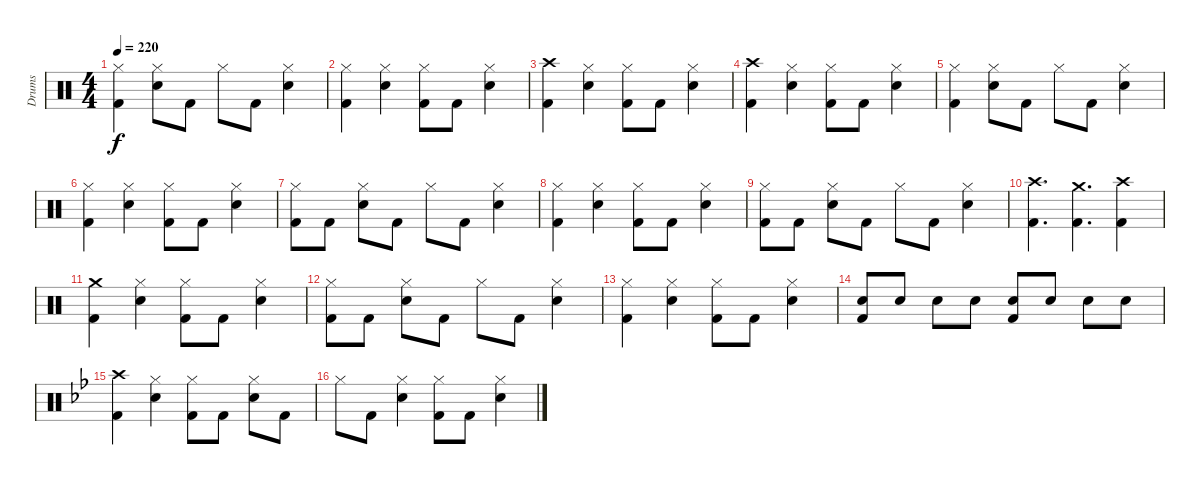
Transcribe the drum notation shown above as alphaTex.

\track ("Drums" "Drums") {instrument percussion}
\staff {score}
\articulation defaults
\ts (4 4)
\tempo 220
\clef neutral
\ks aminor
("Kick (hit) 2" "Hi-Hat (closed)").4{dy f} ("Snare (hit) 2" "Hi-Hat (closed)").8 "Kick (hit) 2".8 "Hi-Hat (closed)".8 "Kick (hit) 2".8 ("Snare (hit) 2" "Hi-Hat (closed)").4 |
("Kick (hit) 2" "Hi-Hat (closed)").4 ("Snare (hit) 2" "Hi-Hat (closed)").4 ("Kick (hit) 2" "Hi-Hat (closed)").8 "Kick (hit) 2".8 ("Snare (hit) 2" "Hi-Hat (closed)").4 |
("Kick (hit) 2" "Crash high (hit)").4 ("Snare (hit) 2" "Hi-Hat (closed)").4 ("Kick (hit) 2" "Hi-Hat (closed)").8 "Kick (hit) 2".8 ("Snare (hit) 2" "Hi-Hat (closed)").4 |
("Kick (hit) 2" "Crash high (hit)").4 ("Snare (hit) 2" "Hi-Hat (closed)").4 ("Kick (hit) 2" "Hi-Hat (closed)").8 "Kick (hit) 2".8 ("Snare (hit) 2" "Hi-Hat (closed)").4 |
("Kick (hit) 2" "Hi-Hat (closed)").4 ("Snare (hit) 2" "Hi-Hat (closed)").8 "Kick (hit) 2".8 "Hi-Hat (closed)".8 "Kick (hit) 2".8 ("Snare (hit) 2" "Hi-Hat (closed)").4 |
("Kick (hit) 2" "Hi-Hat (closed)").4 ("Snare (hit) 2" "Hi-Hat (closed)").4 ("Kick (hit) 2" "Hi-Hat (closed)").8 "Kick (hit) 2".8 ("Snare (hit) 2" "Hi-Hat (closed)").4 |
("Kick (hit) 2" "Hi-Hat (closed)").8 "Kick (hit) 2".8 ("Snare (hit) 2" "Hi-Hat (closed)").8 "Kick (hit) 2".8 "Hi-Hat (closed)".8 "Kick (hit) 2".8 ("Snare (hit) 2" "Hi-Hat (closed)").4 |
("Kick (hit) 2" "Hi-Hat (closed)").4 ("Snare (hit) 2" "Hi-Hat (closed)").4 ("Kick (hit) 2" "Hi-Hat (closed)").8 "Kick (hit) 2".8 ("Snare (hit) 2" "Hi-Hat (closed)").4 |
("Kick (hit) 2" "Hi-Hat (closed)").8 "Kick (hit) 2".8 ("Snare (hit) 2" "Hi-Hat (closed)").8 "Kick (hit) 2".8 "Hi-Hat (closed)".8 "Kick (hit) 2".8 ("Snare (hit) 2" "Hi-Hat (closed)").4 |
("Kick (hit) 2" "Crash high (hit)").4{d} ("Kick (hit) 2" "Crash medium (hit)").4{d} ("Kick (hit) 2" "Crash high (hit)").4 |
("Kick (hit) 2" "Crash medium (hit)").4 ("Snare (hit) 2" "Hi-Hat (closed)").4 ("Kick (hit) 2" "Hi-Hat (closed)").8 "Kick (hit) 2".8 ("Snare (hit) 2" "Hi-Hat (closed)").4 |
("Kick (hit) 2" "Hi-Hat (closed)").8 "Kick (hit) 2".8 ("Snare (hit) 2" "Hi-Hat (closed)").8 "Kick (hit) 2".8 "Hi-Hat (closed)".8 "Kick (hit) 2".8 ("Snare (hit) 2" "Hi-Hat (closed)").4 |
("Kick (hit) 2" "Hi-Hat (closed)").4 ("Snare (hit) 2" "Hi-Hat (closed)").4 ("Kick (hit) 2" "Hi-Hat (closed)").8 "Kick (hit) 2".8 ("Snare (hit) 2" "Hi-Hat (closed)").4 |
("Kick (hit) 2" "Snare (hit) 2").8 "Snare (hit) 2".8 "Snare (hit) 2".8 "Snare (hit) 2".8 ("Kick (hit) 2" "Snare (hit) 2").8 "Snare (hit) 2".8 "Snare (hit) 2".8 "Snare (hit) 2".8 |
\ks gminor
("Kick (hit) 2" "Crash high (hit)").4 ("Snare (hit) 2" "Hi-Hat (closed)").4 ("Kick (hit) 2" "Hi-Hat (closed)").8 "Kick (hit) 2".8 ("Snare (hit) 2" "Hi-Hat (closed)").8 "Kick (hit) 2".8 |
"Hi-Hat (closed)".8 "Kick (hit) 2".8 ("Snare (hit) 2" "Hi-Hat (closed)").4 ("Kick (hit) 2" "Hi-Hat (closed)").8 "Kick (hit) 2".8 ("Snare (hit) 2" "Hi-Hat (closed)").4
